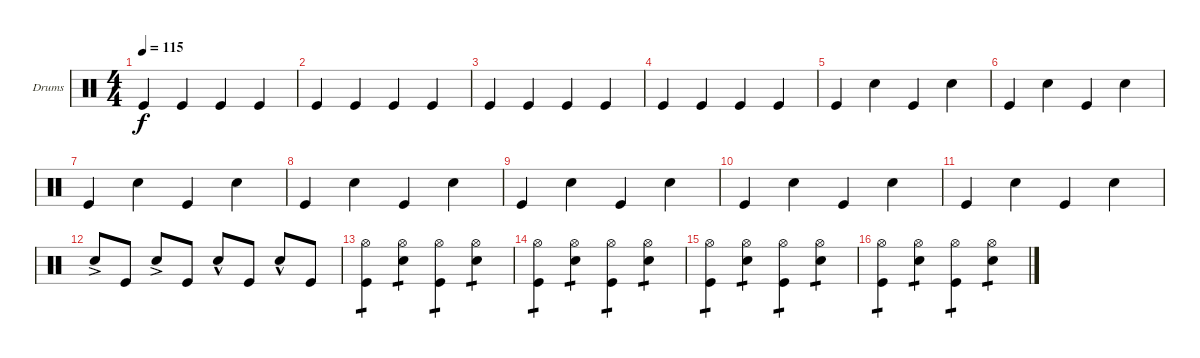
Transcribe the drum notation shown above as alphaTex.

\bracketExtendMode groupsimilarinstruments
\firstSystemTrackNameOrientation horizontal
\otherSystemsTrackNameOrientation horizontal
\track ("Drumkit" "Drums") {instrument percussion}
\staff {score}
\articulation defaults
\ts (4 4)
\tempo 115
\clef neutral
\scale
0.333333
\ks c "Kick (hit)".4{dy f} "Kick (hit)".4 "Kick (hit)".4 "Kick (hit)".4
|
\scale
0.333333 "Kick (hit)".4 "Kick (hit)".4 "Kick (hit)".4 "Kick (hit)".4 |
\scale
0.333333 "Kick (hit)".4 "Kick (hit)".4 "Kick (hit)".4 "Kick (hit)".4 |
\scale
0.333333 "Kick (hit)".4 "Kick (hit)".4 "Kick (hit)".4 "Kick (hit)".4 |
\scale
0.333333 "Kick (hit)".4 "Snare (hit) 2".4 "Kick (hit)".4 "Snare (hit) 2".4 |
\scale
0.333333 "Kick (hit)".4 "Snare (hit) 2".4 "Kick (hit)".4 "Snare (hit) 2".4 |
\scale
0.333333 "Kick (hit)".4 "Snare (hit) 2".4 "Kick (hit)".4 "Snare (hit) 2".4 |
\scale
0.333333 "Kick (hit)".4 "Snare (hit) 2".4 "Kick (hit)".4 "Snare (hit) 2".4 |
\scale
0.333333 "Kick (hit)".4 "Snare (hit) 2".4 "Kick (hit)".4 "Snare (hit) 2".4 |
\scale
0.333333 "Kick (hit)".4 "Snare (hit) 2".4 "Kick (hit)".4 "Snare (hit) 2".4 |
\scale
0.333333 "Kick (hit)".4 "Snare (hit) 2".4 "Kick (hit)".4 "Snare (hit) 2".4 |
\scale
0.333333 "Snare (hit) 2"{ac}.8 "Kick (hit)".8 "Snare (hit) 2"{ac}.8 "Kick (hit)".8 "Snare (hit) 2"{hac}.8 "Kick (hit)".8 "Snare (hit) 2"{hac}.8 "Kick (hit)".8 |
\scale
0.333333 ("Kick (hit)" "Hi-Hat (open)").4{tp 1} ("Snare (hit) 2" "Hi-Hat (open)").4{tp 1} ("Kick (hit)" "Hi-Hat (open)").4{tp 1} ("Snare (hit) 2" "Hi-Hat (open)").4{tp 1} |
\scale
0.333333 ("Kick (hit)" "Hi-Hat (open)").4{tp 1} ("Snare (hit) 2" "Hi-Hat (open)").4{tp 1} ("Kick (hit)" "Hi-Hat (open)").4{tp 1} ("Snare (hit) 2" "Hi-Hat (open)").4{tp 1} |
\scale
0.333333 ("Kick (hit)" "Hi-Hat (open)").4{tp 1} ("Snare (hit) 2" "Hi-Hat (open)").4{tp 1} ("Kick (hit)" "Hi-Hat (open)").4{tp 1} ("Snare (hit) 2" "Hi-Hat (open)").4{tp 1} |
\scale
0.333333 ("Kick (hit)" "Hi-Hat (open)").4{tp 1} ("Snare (hit) 2" "Hi-Hat (open)").4{tp 1} ("Kick (hit)" "Hi-Hat (open)").4{tp 1} ("Snare (hit) 2" "Hi-Hat (open)").4{tp 1}
